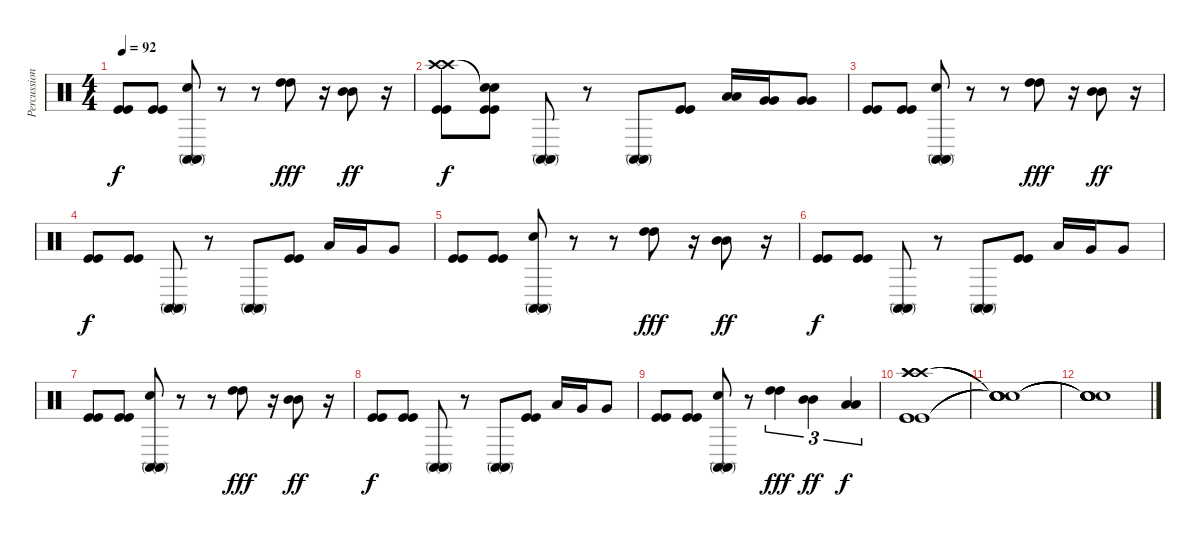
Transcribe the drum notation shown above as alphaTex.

\track ("Percussion" "Percussion") {instrument percussion}
\staff {score}
\articulation defaults
\ts (4 4)
\tempo 92
\clef neutral
\ks c
("Kick (hit)" "Kick (hit)").8{dy f} ("Kick (hit)" "Kick (hit)").8 ("Conga high (mute)" "Conga high (mute)" "Electric Snare (hit)").8 r.8 r.8 ("High Tom (hit)" "High Tom (hit)").8{dy fff} r.16 ("Mid Tom (hit)" "Mid Tom (hit)").8{dy ff} r.16 |
("Crash high (hit)" "Crash high (hit)" "Kick (hit)" "Kick (hit)").8{dy f} ("Snare (hit)"{t} "Snare (hit)"{t} "Kick (hit)" "Kick (hit)").8 ("Conga high (mute)" "Conga high (mute)").8 r.8 ("Conga high (mute)" "Conga high (mute)").8 ("Kick (hit)" "Kick (hit)").8 ("Low Tom (hit)" "Low Tom (hit)").16 ("Very Low Tom (hit)" "Very Low Tom (hit)").16 ("Very Low Tom (hit)" "Very Low Tom (hit)").8 |
("Kick (hit)" "Kick (hit)").8 ("Kick (hit)" "Kick (hit)").8 ("Conga high (mute)" "Conga high (mute)" "Electric Snare (hit)").8 r.8 r.8 ("High Tom (hit)" "High Tom (hit)").8{dy fff} r.16 ("Mid Tom (hit)" "Mid Tom (hit)").8{dy ff} r.16 |
("Kick (hit)" "Kick (hit)").8{dy f} ("Kick (hit)" "Kick (hit)").8 ("Conga high (mute)" "Conga high (mute)").8 r.8 ("Conga high (mute)" "Conga high (mute)").8 ("Kick (hit)" "Kick (hit)").8 "Low Tom (hit)".16 "Very Low Tom (hit)".16 "Very Low Tom (hit)".8 |
("Kick (hit)" "Kick (hit)").8 ("Kick (hit)" "Kick (hit)").8 ("Conga high (mute)" "Conga high (mute)" "Electric Snare (hit)").8 r.8 r.8 ("High Tom (hit)" "High Tom (hit)").8{dy fff} r.16 ("Mid Tom (hit)" "Mid Tom (hit)").8{dy ff} r.16 |
("Kick (hit)" "Kick (hit)").8{dy f} ("Kick (hit)" "Kick (hit)").8 ("Conga high (mute)" "Conga high (mute)").8 r.8 ("Conga high (mute)" "Conga high (mute)").8 ("Kick (hit)" "Kick (hit)").8 "Low Tom (hit)".16 "Very Low Tom (hit)".16 "Very Low Tom (hit)".8 |
("Kick (hit)" "Kick (hit)").8 ("Kick (hit)" "Kick (hit)").8 ("Conga high (mute)" "Conga high (mute)" "Electric Snare (hit)").8 r.8 r.8 ("High Tom (hit)" "High Tom (hit)").8{dy fff} r.16 ("Mid Tom (hit)" "Mid Tom (hit)").8{dy ff} r.16 |
("Kick (hit)" "Kick (hit)").8{dy f} ("Kick (hit)" "Kick (hit)").8 ("Conga high (mute)" "Conga high (mute)").8 r.8 ("Conga high (mute)" "Conga high (mute)").8 ("Kick (hit)" "Kick (hit)").8 "Low Tom (hit)".16 "Very Low Tom (hit)".16 "Very Low Tom (hit)".8 |
("Kick (hit)" "Kick (hit)").8 ("Kick (hit)" "Kick (hit)").8 ("Conga high (mute)" "Conga high (mute)" "Electric Snare (hit)").8 r.8 ("High Tom (hit)" "High Tom (hit)").4{tu (3 2) dy fff} ("Mid Tom (hit)" "Mid Tom (hit)").4{tu (3 2) dy ff} ("Low Tom (hit)" "Low Tom (hit)").4{tu (3 2) dy f} |
("Crash high (hit)" "Crash high (hit)" "Crash high (hit)" "Kick (hit)" "Kick (hit)" "Kick (hit)").1 |
("Snare (hit)"{t} "Snare (hit)"{t} "Snare (hit)"{t} "Snare (hit)"{t} "Snare (hit)"{t} "Snare (hit)"{t}).1 |
("Snare (hit)"{t} "Snare (hit)"{t} "Snare (hit)"{t} "Snare (hit)"{t} "Snare (hit)"{t} "Snare (hit)"{t}).1
